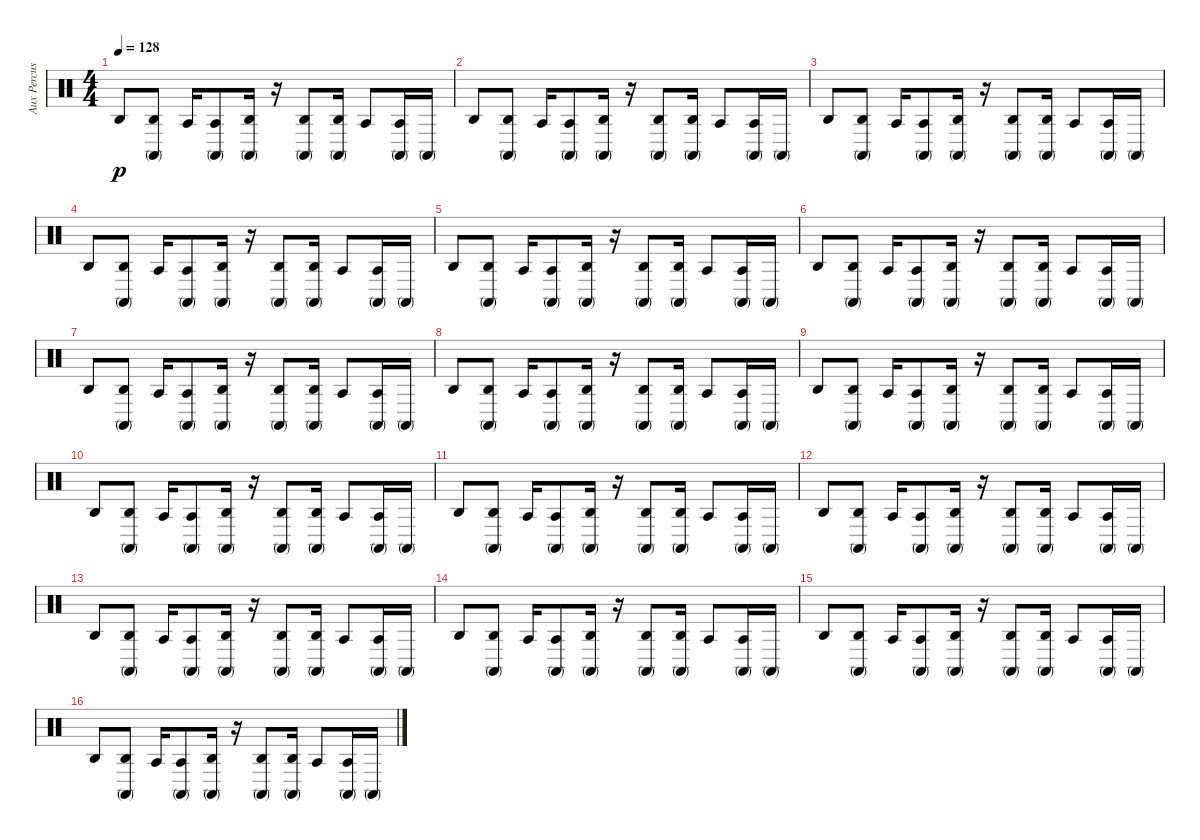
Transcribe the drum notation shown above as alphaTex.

\track ("Aux Percussion" "Aux Percus") {instrument percussion}
\staff {score}
\articulation defaults
\ts (4 4)
\tempo 128
\clef neutral
\ks c "Agogo high (hit)".8{dy p}
("Conga high (mute)" "Agogo high (hit)").8 "Agogo tow (hit)".16 ("Conga high (mute)" "Agogo tow (hit)").8 ("Agogo high (hit)" "Conga high (mute)").16 r.16 ("Agogo high (hit)" "Conga high (mute)").8 ("Conga high (mute)" "Agogo high (hit)").16 "Agogo tow (hit)".8 ("Agogo tow (hit)" "Conga high (mute)").16 "Conga high (mute)".16 |
"Agogo high (hit)".8 ("Agogo high (hit)" "Conga high (mute)").8 "Agogo tow (hit)".16 ("Conga high (mute)" "Agogo tow (hit)").8 ("Conga high (mute)" "Agogo high (hit)").16 r.16 ("Conga high (mute)" "Agogo high (hit)").8 ("Agogo high (hit)" "Conga high (mute)").16 "Agogo tow (hit)".8 ("Conga high (mute)" "Agogo tow (hit)").16 "Conga high (mute)".16 |
"Agogo high (hit)".8 ("Agogo high (hit)" "Conga high (mute)").8 "Agogo tow (hit)".16 ("Agogo tow (hit)" "Conga high (mute)").8 ("Conga high (mute)" "Agogo high (hit)").16 r.16 ("Conga high (mute)" "Agogo high (hit)").8 ("Agogo high (hit)" "Conga high (mute)").16 "Agogo tow (hit)".8 ("Conga high (mute)" "Agogo tow (hit)").16 "Conga high (mute)".16 |
"Agogo high (hit)".8 ("Conga high (mute)" "Agogo high (hit)").8 "Agogo tow (hit)".16 ("Agogo tow (hit)" "Conga high (mute)").8 ("Agogo high (hit)" "Conga high (mute)").16 r.16 ("Agogo high (hit)" "Conga high (mute)").8 ("Conga high (mute)" "Agogo high (hit)").16 "Agogo tow (hit)".8 ("Agogo tow (hit)" "Conga high (mute)").16 "Conga high (mute)".16 |
"Agogo high (hit)".8 ("Conga high (mute)" "Agogo high (hit)").8 "Agogo tow (hit)".16 ("Conga high (mute)" "Agogo tow (hit)").8 ("Agogo high (hit)" "Conga high (mute)").16 r.16 ("Agogo high (hit)" "Conga high (mute)").8 ("Conga high (mute)" "Agogo high (hit)").16 "Agogo tow (hit)".8 ("Agogo tow (hit)" "Conga high (mute)").16 "Conga high (mute)".16 |
"Agogo high (hit)".8 ("Agogo high (hit)" "Conga high (mute)").8 "Agogo tow (hit)".16 ("Conga high (mute)" "Agogo tow (hit)").8 ("Conga high (mute)" "Agogo high (hit)").16 r.16 ("Conga high (mute)" "Agogo high (hit)").8 ("Agogo high (hit)" "Conga high (mute)").16 "Agogo tow (hit)".8 ("Conga high (mute)" "Agogo tow (hit)").16 "Conga high (mute)".16 |
"Agogo high (hit)".8 ("Agogo high (hit)" "Conga high (mute)").8 "Agogo tow (hit)".16 ("Agogo tow (hit)" "Conga high (mute)").8 ("Conga high (mute)" "Agogo high (hit)").16 r.16 ("Conga high (mute)" "Agogo high (hit)").8 ("Agogo high (hit)" "Conga high (mute)").16 "Agogo tow (hit)".8 ("Conga high (mute)" "Agogo tow (hit)").16 "Conga high (mute)".16 |
"Agogo high (hit)".8 ("Conga high (mute)" "Agogo high (hit)").8 "Agogo tow (hit)".16 ("Agogo tow (hit)" "Conga high (mute)").8 ("Agogo high (hit)" "Conga high (mute)").16 r.16 ("Agogo high (hit)" "Conga high (mute)").8 ("Conga high (mute)" "Agogo high (hit)").16 "Agogo tow (hit)".8 ("Agogo tow (hit)" "Conga high (mute)").16 "Conga high (mute)".16 |
"Agogo high (hit)".8 ("Agogo high (hit)" "Conga high (mute)").8 "Agogo tow (hit)".16 ("Agogo tow (hit)" "Conga high (mute)").8 ("Conga high (mute)" "Agogo high (hit)").16 r.16 ("Conga high (mute)" "Agogo high (hit)").8 ("Agogo high (hit)" "Conga high (mute)").16 "Agogo tow (hit)".8 ("Conga high (mute)" "Agogo tow (hit)").16 "Conga high (mute)".16 |
"Agogo high (hit)".8 ("Conga high (mute)" "Agogo high (hit)").8 "Agogo tow (hit)".16 ("Agogo tow (hit)" "Conga high (mute)").8 ("Agogo high (hit)" "Conga high (mute)").16 r.16 ("Agogo high (hit)" "Conga high (mute)").8 ("Conga high (mute)" "Agogo high (hit)").16 "Agogo tow (hit)".8 ("Agogo tow (hit)" "Conga high (mute)").16 "Conga high (mute)".16 |
"Agogo high (hit)".8 ("Conga high (mute)" "Agogo high (hit)").8 "Agogo tow (hit)".16 ("Conga high (mute)" "Agogo tow (hit)").8 ("Agogo high (hit)" "Conga high (mute)").16 r.16 ("Agogo high (hit)" "Conga high (mute)").8 ("Conga high (mute)" "Agogo high (hit)").16 "Agogo tow (hit)".8 ("Agogo tow (hit)" "Conga high (mute)").16 "Conga high (mute)".16 |
"Agogo high (hit)".8 ("Agogo high (hit)" "Conga high (mute)").8 "Agogo tow (hit)".16 ("Conga high (mute)" "Agogo tow (hit)").8 ("Conga high (mute)" "Agogo high (hit)").16 r.16 ("Conga high (mute)" "Agogo high (hit)").8 ("Agogo high (hit)" "Conga high (mute)").16 "Agogo tow (hit)".8 ("Conga high (mute)" "Agogo tow (hit)").16 "Conga high (mute)".16 |
"Agogo high (hit)".8 ("Agogo high (hit)" "Conga high (mute)").8 "Agogo tow (hit)".16 ("Agogo tow (hit)" "Conga high (mute)").8 ("Conga high (mute)" "Agogo high (hit)").16 r.16 ("Conga high (mute)" "Agogo high (hit)").8 ("Agogo high (hit)" "Conga high (mute)").16 "Agogo tow (hit)".8 ("Conga high (mute)" "Agogo tow (hit)").16 "Conga high (mute)".16 |
"Agogo high (hit)".8 ("Conga high (mute)" "Agogo high (hit)").8 "Agogo tow (hit)".16 ("Agogo tow (hit)" "Conga high (mute)").8 ("Agogo high (hit)" "Conga high (mute)").16 r.16 ("Agogo high (hit)" "Conga high (mute)").8 ("Conga high (mute)" "Agogo high (hit)").16 "Agogo tow (hit)".8 ("Agogo tow (hit)" "Conga high (mute)").16 "Conga high (mute)".16 |
"Agogo high (hit)".8 ("Conga high (mute)" "Agogo high (hit)").8 "Agogo tow (hit)".16 ("Conga high (mute)" "Agogo tow (hit)").8 ("Agogo high (hit)" "Conga high (mute)").16 r.16 ("Agogo high (hit)" "Conga high (mute)").8 ("Conga high (mute)" "Agogo high (hit)").16 "Agogo tow (hit)".8 ("Agogo tow (hit)" "Conga high (mute)").16 "Conga high (mute)".16 |
"Agogo high (hit)".8 ("Agogo high (hit)" "Conga high (mute)").8 "Agogo tow (hit)".16 ("Conga high (mute)" "Agogo tow (hit)").8 ("Conga high (mute)" "Agogo high (hit)").16 r.16 ("Conga high (mute)" "Agogo high (hit)").8 ("Agogo high (hit)" "Conga high (mute)").16 "Agogo tow (hit)".8 ("Conga high (mute)" "Agogo tow (hit)").16 "Conga high (mute)".16
